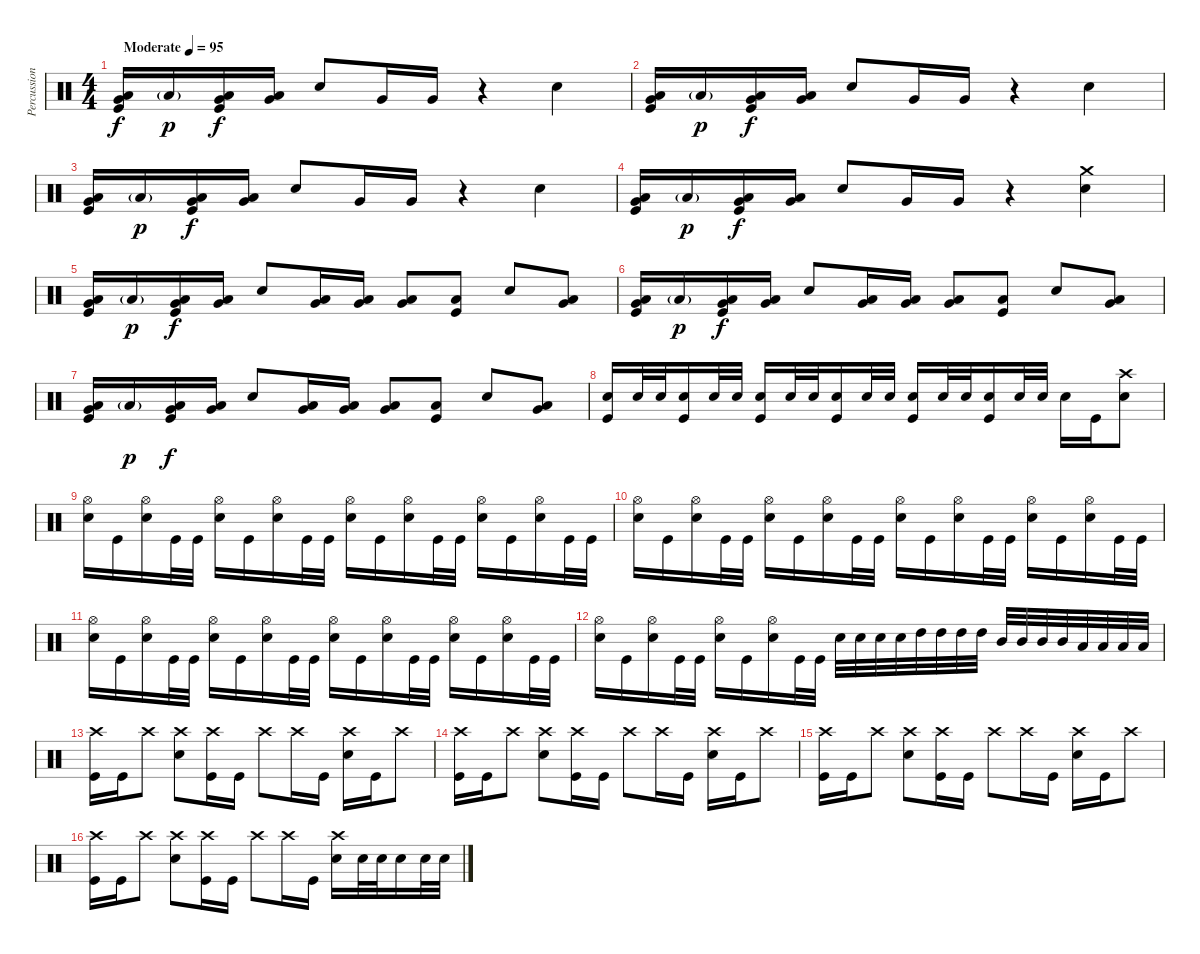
\track ("Percussion" "Percussion") {instrument percussion}
\staff {score}
\articulation defaults
\ts (4 4)
\tempo (95 "Moderate")
\clef neutral
\ks c
("Low Tom (hit)" "Very Low Tom (hit)" "Kick (hit)").16{dy f} "Low Tom (hit)"{g}.16{dy p} ("Low Tom (hit)" "Very Low Tom (hit)" "Kick (hit)").16{dy f} ("Very Low Tom (hit)" "Low Floor Tom (hit)").16 "Snare (hit) 2".8 "Very Low Tom (hit)".16 "Very Low Tom (hit)".16 r.4 "Snare (hit) 2".4 |
("Low Tom (hit)" "Very Low Tom (hit)" "Kick (hit)").16 "Low Tom (hit)"{g}.16{dy p} ("Low Tom (hit)" "Very Low Tom (hit)" "Kick (hit)").16{dy f} ("Very Low Tom (hit)" "Low Floor Tom (hit)").16 "Snare (hit) 2".8 "Very Low Tom (hit)".16 "Very Low Tom (hit)".16 r.4 "Snare (hit) 2".4 |
("Low Tom (hit)" "Very Low Tom (hit)" "Kick (hit)").16 "Low Tom (hit)"{g}.16{dy p} ("Low Tom (hit)" "Very Low Tom (hit)" "Kick (hit)").16{dy f} ("Very Low Tom (hit)" "Low Floor Tom (hit)").16 "Snare (hit) 2".8 "Very Low Tom (hit)".16 "Very Low Tom (hit)".16 r.4 "Snare (hit) 2".4 |
("Low Tom (hit)" "Very Low Tom (hit)" "Kick (hit)").16 "Low Tom (hit)"{g}.16{dy p} ("Low Tom (hit)" "Very Low Tom (hit)" "Kick (hit)").16{dy f} ("Very Low Tom (hit)" "Low Floor Tom (hit)").16 "Snare (hit) 2".8 "Very Low Tom (hit)".16 "Very Low Tom (hit)".16 r.4 ("Crash medium (hit)" "Snare (hit) 2").4 |
("Low Tom (hit)" "Very Low Tom (hit)" "Kick (hit)").16 "Low Tom (hit)"{g}.16{dy p} ("Low Tom (hit)" "Very Low Tom (hit)" "Kick (hit)").16{dy f} ("Very Low Tom (hit)" "Low Floor Tom (hit)").16 "Snare (hit) 2".8 ("Low Tom (hit)" "Very Low Tom (hit)").16 ("Low Tom (hit)" "Very Low Tom (hit)").16 ("Very Low Tom (hit)" "Low Floor Tom (hit)").8 ("Low Floor Tom (hit)" "Kick (hit)").8 "Snare (hit) 2".8 ("Very Low Tom (hit)" "Low Floor Tom (hit)").8 |
("Low Tom (hit)" "Very Low Tom (hit)" "Kick (hit)").16 "Low Tom (hit)"{g}.16{dy p} ("Low Tom (hit)" "Very Low Tom (hit)" "Kick (hit)").16{dy f} ("Very Low Tom (hit)" "Low Floor Tom (hit)").16 "Snare (hit) 2".8 ("Low Tom (hit)" "Very Low Tom (hit)").16 ("Low Tom (hit)" "Very Low Tom (hit)").16 ("Very Low Tom (hit)" "Low Floor Tom (hit)").8 ("Low Floor Tom (hit)" "Kick (hit)").8 "Snare (hit) 2".8 ("Very Low Tom (hit)" "Low Floor Tom (hit)").8 |
("Low Tom (hit)" "Very Low Tom (hit)" "Kick (hit)").16 "Low Tom (hit)"{g}.16{dy p} ("Low Tom (hit)" "Very Low Tom (hit)" "Kick (hit)").16{dy f} ("Very Low Tom (hit)" "Low Floor Tom (hit)").16 "Snare (hit) 2".8 ("Low Tom (hit)" "Very Low Tom (hit)").16 ("Low Tom (hit)" "Very Low Tom (hit)").16 ("Very Low Tom (hit)" "Low Floor Tom (hit)").8 ("Low Floor Tom (hit)" "Kick (hit)").8 "Snare (hit) 2".8 ("Very Low Tom (hit)" "Low Floor Tom (hit)").8 |
("Snare (hit) 2" "Kick (hit)").16 "Snare (hit) 2".32 "Snare (hit) 2".32 ("Snare (hit) 2" "Kick (hit)").16 "Snare (hit) 2".32 "Snare (hit) 2".32 ("Snare (hit) 2" "Kick (hit)").16 "Snare (hit) 2".32 "Snare (hit) 2".32 ("Snare (hit) 2" "Kick (hit)").16 "Snare (hit) 2".32 "Snare (hit) 2".32 ("Snare (hit) 2" "Kick (hit)").16 "Snare (hit) 2".32 "Snare (hit) 2".32 ("Snare (hit) 2" "Kick (hit)").16 "Snare (hit) 2".32 "Snare (hit) 2".32 "Snare (hit) 2".16 "Kick (hit)".16 ("Crash high (hit)" "Snare (hit) 2").8 |
("Hi-Hat (open)" "Snare (hit) 2").16 "Kick (hit)".16 ("Hi-Hat (open)" "Snare (hit) 2").16 "Kick (hit)".32 "Kick (hit)".32 ("Hi-Hat (open)" "Snare (hit) 2").16 "Kick (hit)".16 ("Hi-Hat (open)" "Snare (hit) 2").16 "Kick (hit)".32 "Kick (hit)".32 ("Hi-Hat (open)" "Snare (hit) 2").16 "Kick (hit)".16 ("Hi-Hat (open)" "Snare (hit) 2").16 "Kick (hit)".32 "Kick (hit)".32 ("Hi-Hat (open)" "Snare (hit) 2").16 "Kick (hit)".16 ("Hi-Hat (open)" "Snare (hit) 2").16 "Kick (hit)".32 "Kick (hit)".32 |
("Hi-Hat (open)" "Snare (hit) 2").16 "Kick (hit)".16 ("Hi-Hat (open)" "Snare (hit) 2").16 "Kick (hit)".32 "Kick (hit)".32 ("Hi-Hat (open)" "Snare (hit) 2").16 "Kick (hit)".16 ("Hi-Hat (open)" "Snare (hit) 2").16 "Kick (hit)".32 "Kick (hit)".32 ("Hi-Hat (open)" "Snare (hit) 2").16 "Kick (hit)".16 ("Hi-Hat (open)" "Snare (hit) 2").16 "Kick (hit)".32 "Kick (hit)".32 ("Hi-Hat (open)" "Snare (hit) 2").16 "Kick (hit)".16 ("Hi-Hat (open)" "Snare (hit) 2").16 "Kick (hit)".32 "Kick (hit)".32 |
("Hi-Hat (open)" "Snare (hit) 2").16 "Kick (hit)".16 ("Hi-Hat (open)" "Snare (hit) 2").16 "Kick (hit)".32 "Kick (hit)".32 ("Hi-Hat (open)" "Snare (hit) 2").16 "Kick (hit)".16 ("Hi-Hat (open)" "Snare (hit) 2").16 "Kick (hit)".32 "Kick (hit)".32 ("Hi-Hat (open)" "Snare (hit) 2").16 "Kick (hit)".16 ("Hi-Hat (open)" "Snare (hit) 2").16 "Kick (hit)".32 "Kick (hit)".32 ("Hi-Hat (open)" "Snare (hit) 2").16 "Kick (hit)".16 ("Hi-Hat (open)" "Snare (hit) 2").16 "Kick (hit)".32 "Kick (hit)".32 |
("Hi-Hat (open)" "Snare (hit) 2").16 "Kick (hit)".16 ("Hi-Hat (open)" "Snare (hit) 2").16 "Kick (hit)".32 "Kick (hit)".32 ("Hi-Hat (open)" "Snare (hit) 2").16 "Kick (hit)".16 ("Hi-Hat (open)" "Snare (hit) 2").16 "Kick (hit)".32 "Kick (hit)".32 "Snare (hit) 2".32 "Snare (hit) 2".32 "Snare (hit) 2".32 "Snare (hit) 2".32 "High Tom (hit)".32 "High Tom (hit)".32 "High Tom (hit)".32 "High Tom (hit)".32 "Mid Tom (hit)".32 "Mid Tom (hit)".32 "Mid Tom (hit)".32 "Mid Tom (hit)".32 "Low Tom (hit)".32 "Low Tom (hit)".32 "Low Tom (hit)".32 "Low Tom (hit)".32 |
("Crash high (hit)" "Kick (hit)").16 "Kick (hit)".16 "Crash high (hit)".8 ("Crash high (hit)" "Snare (hit) 2").8 ("Crash high (hit)" "Kick (hit)").16 "Kick (hit)".16 "Crash high (hit)".8 "Crash high (hit)".16 "Kick (hit)".16 ("Crash high (hit)" "Snare (hit) 2").16 "Kick (hit)".16 "Crash high (hit)".8 |
("Crash high (hit)" "Kick (hit)").16 "Kick (hit)".16 "Crash high (hit)".8 ("Crash high (hit)" "Snare (hit) 2").8 ("Crash high (hit)" "Kick (hit)").16 "Kick (hit)".16 "Crash high (hit)".8 "Crash high (hit)".16 "Kick (hit)".16 ("Crash high (hit)" "Snare (hit) 2").16 "Kick (hit)".16 "Crash high (hit)".8 |
("Crash high (hit)" "Kick (hit)").16 "Kick (hit)".16 "Crash high (hit)".8 ("Crash high (hit)" "Snare (hit) 2").8 ("Crash high (hit)" "Kick (hit)").16 "Kick (hit)".16 "Crash high (hit)".8 "Crash high (hit)".16 "Kick (hit)".16 ("Crash high (hit)" "Snare (hit) 2").16 "Kick (hit)".16 "Crash high (hit)".8 |
("Crash high (hit)" "Kick (hit)").16 "Kick (hit)".16 "Crash high (hit)".8 ("Crash high (hit)" "Snare (hit) 2").8 ("Crash high (hit)" "Kick (hit)").16 "Kick (hit)".16 "Crash high (hit)".8 "Crash high (hit)".16 "Kick (hit)".16 ("Crash high (hit)" "Snare (hit) 2").16 "Snare (hit) 2".32 "Snare (hit) 2".32 "Snare (hit) 2".16 "Snare (hit) 2".32 "Snare (hit) 2".32
